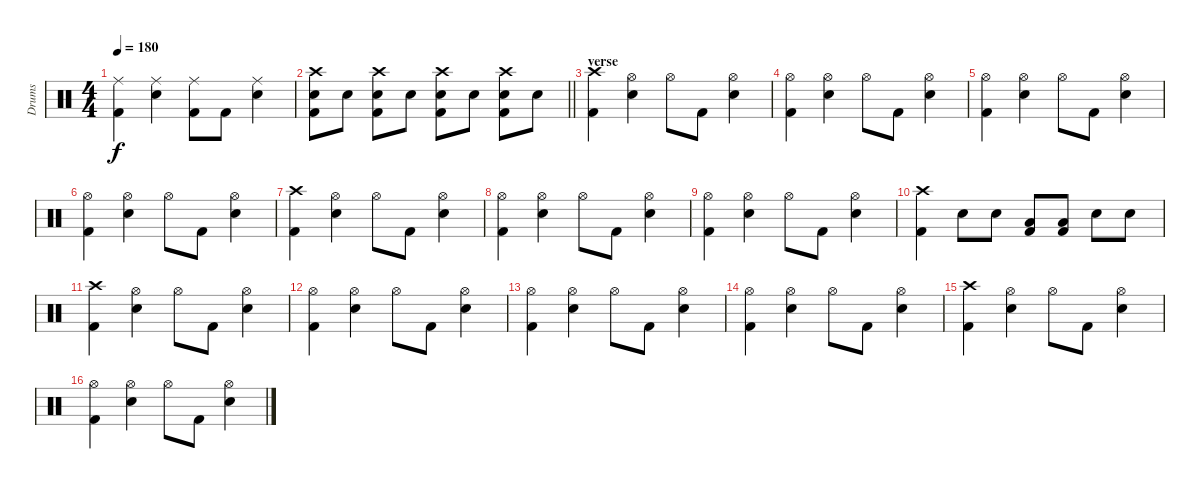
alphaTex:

\track ("Drums" "Drums") {instrument percussion}
\staff {score}
\articulation defaults
\ts (4 4)
\tempo 180
\clef neutral
\ks c
("Ride (middle)" "Kick (hit) 2").4{dy f} ("Ride (middle)" "Electric Snare (hit)").4 ("Ride (middle)" "Kick (hit) 2").8 "Kick (hit) 2".8 ("Ride (middle)" "Electric Snare (hit)").4 |
\barLineRight lightlight
("Crash high (hit)" "Electric Snare (hit)" "Kick (hit) 2").8 "Electric Snare (hit)".8 ("Crash high (hit)" "Electric Snare (hit)" "Kick (hit) 2").8 "Electric Snare (hit)".8 ("Crash high (hit)" "Electric Snare (hit)" "Kick (hit) 2").8 "Electric Snare (hit)".8 ("Crash high (hit)" "Electric Snare (hit)" "Kick (hit) 2").8 "Electric Snare (hit)".8 |
\section ("" "verse")
("Crash high (hit)" "Kick (hit) 2").4 ("Hi-Hat (open)" "Electric Snare (hit)").4 "Hi-Hat (open)".8 "Kick (hit) 2".8 ("Hi-Hat (open)" "Electric Snare (hit)").4 |
("Hi-Hat (open)" "Kick (hit) 2").4 ("Hi-Hat (open)" "Electric Snare (hit)").4 "Hi-Hat (open)".8 "Kick (hit) 2".8 ("Hi-Hat (open)" "Electric Snare (hit)").4 |
("Hi-Hat (open)" "Kick (hit) 2").4 ("Hi-Hat (open)" "Electric Snare (hit)").4 "Hi-Hat (open)".8 "Kick (hit) 2".8 ("Hi-Hat (open)" "Electric Snare (hit)").4 |
("Hi-Hat (open)" "Kick (hit) 2").4 ("Hi-Hat (open)" "Electric Snare (hit)").4 "Hi-Hat (open)".8 "Kick (hit) 2".8 ("Hi-Hat (open)" "Electric Snare (hit)").4 |
("Crash high (hit)" "Kick (hit) 2").4 ("Hi-Hat (open)" "Electric Snare (hit)").4 "Hi-Hat (open)".8 "Kick (hit) 2".8 ("Hi-Hat (open)" "Electric Snare (hit)").4 |
("Hi-Hat (open)" "Kick (hit) 2").4 ("Hi-Hat (open)" "Electric Snare (hit)").4 "Hi-Hat (open)".8 "Kick (hit) 2".8 ("Hi-Hat (open)" "Electric Snare (hit)").4 |
("Hi-Hat (open)" "Kick (hit) 2").4 ("Hi-Hat (open)" "Electric Snare (hit)").4 "Hi-Hat (open)".8 "Kick (hit) 2".8 ("Hi-Hat (open)" "Electric Snare (hit)").4 |
("Crash high (hit)" "Kick (hit) 2").4 "Electric Snare (hit)".8 "Electric Snare (hit)".8 ("Low Tom (hit)" "Kick (hit) 2").8 ("Low Tom (hit)" "Kick (hit) 2").8 "Electric Snare (hit)".8 "Electric Snare (hit)".8 |
("Crash high (hit)" "Kick (hit) 2").4 ("Hi-Hat (open)" "Electric Snare (hit)").4 "Hi-Hat (open)".8 "Kick (hit) 2".8 ("Hi-Hat (open)" "Electric Snare (hit)").4 |
("Hi-Hat (open)" "Kick (hit) 2").4 ("Hi-Hat (open)" "Electric Snare (hit)").4 "Hi-Hat (open)".8 "Kick (hit) 2".8 ("Hi-Hat (open)" "Electric Snare (hit)").4 |
("Hi-Hat (open)" "Kick (hit) 2").4 ("Hi-Hat (open)" "Electric Snare (hit)").4 "Hi-Hat (open)".8 "Kick (hit) 2".8 ("Hi-Hat (open)" "Electric Snare (hit)").4 |
("Hi-Hat (open)" "Kick (hit) 2").4 ("Hi-Hat (open)" "Electric Snare (hit)").4 "Hi-Hat (open)".8 "Kick (hit) 2".8 ("Hi-Hat (open)" "Electric Snare (hit)").4 |
("Crash high (hit)" "Kick (hit) 2").4 ("Hi-Hat (open)" "Electric Snare (hit)").4 "Hi-Hat (open)".8 "Kick (hit) 2".8 ("Hi-Hat (open)" "Electric Snare (hit)").4 |
("Hi-Hat (open)" "Kick (hit) 2").4 ("Hi-Hat (open)" "Electric Snare (hit)").4 "Hi-Hat (open)".8 "Kick (hit) 2".8 ("Hi-Hat (open)" "Electric Snare (hit)").4
